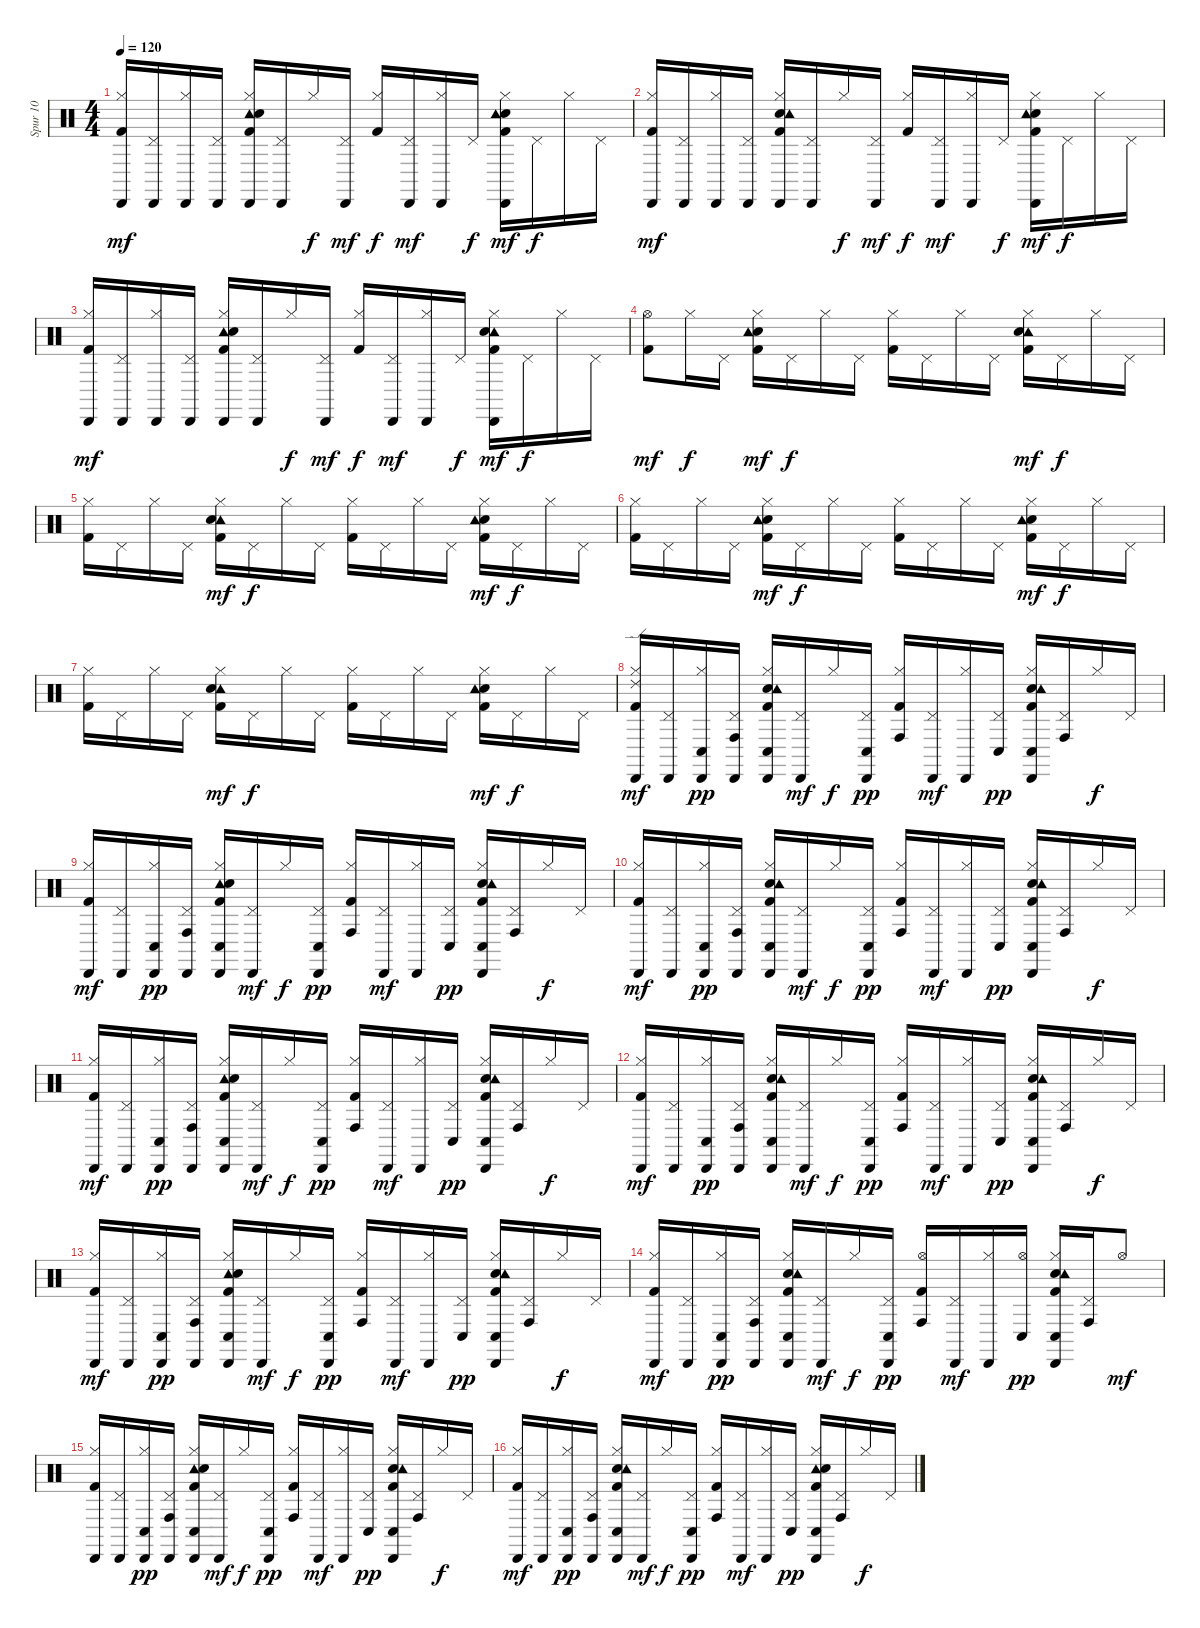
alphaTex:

\track ("Spur 10" "Spur 10") {instrument percussion}
\staff {score}
\articulation defaults
\ts (4 4)
\tempo 120
\clef neutral
\ks c
("Kick (hit) 2" "Hi-Hat (closed)" "Cabasa (hit)").16{dy mf} ("Pedal Hi-Hat (hit)" "Cabasa (hit)").16 ("Hi-Hat (closed)" "Cabasa (hit)").16 ("Pedal Hi-Hat (hit)" "Cabasa (hit)").16 ("Kick (hit) 2" "Tambourine (hit)" "Snare (hit) 2" "Hi-Hat (closed)" "Cabasa (hit)").16 ("Pedal Hi-Hat (hit)" "Cabasa (hit)").16 "Hi-Hat (closed)".16{dy f} ("Pedal Hi-Hat (hit)" "Cabasa (hit)").16{dy mf} ("Kick (hit) 2" "Hi-Hat (closed)").16{dy f} ("Pedal Hi-Hat (hit)" "Cabasa (hit)").16{dy mf} ("Hi-Hat (closed)" "Cabasa (hit)").16 "Pedal Hi-Hat (hit)".16{dy f} ("Snare (hit) 2" "Kick (hit) 2" "Tambourine (hit)" "Hi-Hat (closed)" "Cabasa (hit)").16{dy mf} "Pedal Hi-Hat (hit)".16{dy f} "Hi-Hat (closed)".16 "Pedal Hi-Hat (hit)".16 |
("Kick (hit) 2" "Hi-Hat (closed)" "Cabasa (hit)").16{dy mf} ("Pedal Hi-Hat (hit)" "Cabasa (hit)").16 ("Hi-Hat (closed)" "Cabasa (hit)").16 ("Pedal Hi-Hat (hit)" "Cabasa (hit)").16 ("Snare (hit) 2" "Kick (hit) 2" "Tambourine (hit)" "Hi-Hat (closed)" "Cabasa (hit)").16 ("Pedal Hi-Hat (hit)" "Cabasa (hit)").16 "Hi-Hat (closed)".16{dy f} ("Pedal Hi-Hat (hit)" "Cabasa (hit)").16{dy mf} ("Kick (hit) 2" "Hi-Hat (closed)").16{dy f} ("Pedal Hi-Hat (hit)" "Cabasa (hit)").16{dy mf} ("Hi-Hat (closed)" "Cabasa (hit)").16 "Pedal Hi-Hat (hit)".16{dy f} ("Kick (hit) 2" "Snare (hit) 2" "Tambourine (hit)" "Hi-Hat (closed)" "Cabasa (hit)").16{dy mf} "Pedal Hi-Hat (hit)".16{dy f} "Hi-Hat (closed)".16 "Pedal Hi-Hat (hit)".16 |
("Kick (hit) 2" "Hi-Hat (closed)" "Cabasa (hit)").16{dy mf} ("Pedal Hi-Hat (hit)" "Cabasa (hit)").16 ("Hi-Hat (closed)" "Cabasa (hit)").16 ("Pedal Hi-Hat (hit)" "Cabasa (hit)").16 ("Tambourine (hit)" "Snare (hit) 2" "Kick (hit) 2" "Hi-Hat (closed)" "Cabasa (hit)").16 ("Pedal Hi-Hat (hit)" "Cabasa (hit)").16 "Hi-Hat (closed)".16{dy f} ("Pedal Hi-Hat (hit)" "Cabasa (hit)").16{dy mf} ("Kick (hit) 2" "Hi-Hat (closed)").16{dy f} ("Pedal Hi-Hat (hit)" "Cabasa (hit)").16{dy mf} ("Hi-Hat (closed)" "Cabasa (hit)").16 "Pedal Hi-Hat (hit)".16{dy f} ("Kick (hit) 2" "Tambourine (hit)" "Snare (hit) 2" "Hi-Hat (closed)" "Cabasa (hit)").16{dy mf} "Pedal Hi-Hat (hit)".16{dy f} "Hi-Hat (closed)".16 "Pedal Hi-Hat (hit)".16 |
("Kick (hit) 2" "Hi-Hat (open)").8{dy mf} "Hi-Hat (closed)".16{dy f} "Pedal Hi-Hat (hit)".16 ("Kick (hit) 2" "Snare (hit) 2" "Tambourine (hit)" "Hi-Hat (closed)").16{dy mf} "Pedal Hi-Hat (hit)".16{dy f} "Hi-Hat (closed)".16 "Pedal Hi-Hat (hit)".16 ("Kick (hit) 2" "Hi-Hat (closed)").16 "Pedal Hi-Hat (hit)".16 "Hi-Hat (closed)".16 "Pedal Hi-Hat (hit)".16 ("Kick (hit) 2" "Tambourine (hit)" "Snare (hit) 2" "Hi-Hat (closed)").16{dy mf} "Pedal Hi-Hat (hit)".16{dy f} "Hi-Hat (closed)".16 "Pedal Hi-Hat (hit)".16 |
("Kick (hit) 2" "Hi-Hat (closed)").16 "Pedal Hi-Hat (hit)".16 "Hi-Hat (closed)".16 "Pedal Hi-Hat (hit)".16 ("Tambourine (hit)" "Snare (hit) 2" "Kick (hit) 2" "Hi-Hat (closed)").16{dy mf} "Pedal Hi-Hat (hit)".16{dy f} "Hi-Hat (closed)".16 "Pedal Hi-Hat (hit)".16 ("Kick (hit) 2" "Hi-Hat (closed)").16 "Pedal Hi-Hat (hit)".16 "Hi-Hat (closed)".16 "Pedal Hi-Hat (hit)".16 ("Snare (hit) 2" "Tambourine (hit)" "Kick (hit) 2" "Hi-Hat (closed)").16{dy mf} "Pedal Hi-Hat (hit)".16{dy f} "Hi-Hat (closed)".16 "Pedal Hi-Hat (hit)".16 |
("Kick (hit) 2" "Hi-Hat (closed)").16 "Pedal Hi-Hat (hit)".16 "Hi-Hat (closed)".16 "Pedal Hi-Hat (hit)".16 ("Snare (hit) 2" "Kick (hit) 2" "Tambourine (hit)" "Hi-Hat (closed)").16{dy mf} "Pedal Hi-Hat (hit)".16{dy f} "Hi-Hat (closed)".16 "Pedal Hi-Hat (hit)".16 ("Kick (hit) 2" "Hi-Hat (closed)").16 "Pedal Hi-Hat (hit)".16 "Hi-Hat (closed)".16 "Pedal Hi-Hat (hit)".16 ("Kick (hit) 2" "Snare (hit) 2" "Tambourine (hit)" "Hi-Hat (closed)").16{dy mf} "Pedal Hi-Hat (hit)".16{dy f} "Hi-Hat (closed)".16 "Pedal Hi-Hat (hit)".16 |
("Kick (hit) 2" "Hi-Hat (closed)").16 "Pedal Hi-Hat (hit)".16 "Hi-Hat (closed)".16 "Pedal Hi-Hat (hit)".16 ("Tambourine (hit)" "Snare (hit) 2" "Kick (hit) 2" "Hi-Hat (closed)").16{dy mf} "Pedal Hi-Hat (hit)".16{dy f} "Hi-Hat (closed)".16 "Pedal Hi-Hat (hit)".16 ("Kick (hit) 2" "Hi-Hat (closed)").16 "Pedal Hi-Hat (hit)".16 "Hi-Hat (closed)".16 "Pedal Hi-Hat (hit)".16 ("Kick (hit) 2" "Snare (hit) 2" "Tambourine (hit)" "Hi-Hat (closed)").16{dy mf} "Pedal Hi-Hat (hit)".16{dy f} "Hi-Hat (closed)".16 "Pedal Hi-Hat (hit)".16 |
("Kick (hit) 2" "Hi-Hat (closed)" "Ride (edge) 2" "Cabasa (hit)").16{dy mf} ("Pedal Hi-Hat (hit)" "Cabasa (hit)").16 ("Hi-Hat (closed)" "Cabasa (hit)" "Conga low (hit)").16{dy pp} ("Pedal Hi-Hat (hit)" "Cabasa (hit)" "Conga high (hit)").16 ("Snare (hit) 2" "Kick (hit) 2" "Tambourine (hit)" "Hi-Hat (closed)" "Cabasa (hit)" "Conga low (hit)").16 ("Pedal Hi-Hat (hit)" "Cabasa (hit)").16{dy mf} "Hi-Hat (closed)".16{dy f} ("Pedal Hi-Hat (hit)" "Cabasa (hit)" "Conga low (hit)").16{dy pp} ("Kick (hit) 2" "Hi-Hat (closed)" "Conga high (hit)").16 ("Pedal Hi-Hat (hit)" "Cabasa (hit)").16{dy mf} ("Hi-Hat (closed)" "Cabasa (hit)").16 ("Pedal Hi-Hat (hit)" "Conga low (hit)").16{dy pp} ("Snare (hit) 2" "Tambourine (hit)" "Kick (hit) 2" "Hi-Hat (closed)" "Cabasa (hit)" "Conga low (hit)").16 ("Pedal Hi-Hat (hit)" "Conga high (hit)").16 "Hi-Hat (closed)".16{dy f} "Pedal Hi-Hat (hit)".16 |
("Kick (hit) 2" "Hi-Hat (closed)" "Cabasa (hit)").16{dy mf} ("Pedal Hi-Hat (hit)" "Cabasa (hit)").16 ("Hi-Hat (closed)" "Cabasa (hit)" "Conga low (hit)").16{dy pp} ("Pedal Hi-Hat (hit)" "Cabasa (hit)" "Conga high (hit)").16 ("Tambourine (hit)" "Snare (hit) 2" "Kick (hit) 2" "Hi-Hat (closed)" "Cabasa (hit)" "Conga low (hit)").16 ("Pedal Hi-Hat (hit)" "Cabasa (hit)").16{dy mf} "Hi-Hat (closed)".16{dy f} ("Pedal Hi-Hat (hit)" "Cabasa (hit)" "Conga low (hit)").16{dy pp} ("Kick (hit) 2" "Hi-Hat (closed)" "Conga high (hit)").16 ("Pedal Hi-Hat (hit)" "Cabasa (hit)").16{dy mf} ("Hi-Hat (closed)" "Cabasa (hit)").16 ("Pedal Hi-Hat (hit)" "Conga low (hit)").16{dy pp} ("Snare (hit) 2" "Tambourine (hit)" "Kick (hit) 2" "Hi-Hat (closed)" "Cabasa (hit)" "Conga low (hit)").16 ("Pedal Hi-Hat (hit)" "Conga high (hit)").16 "Hi-Hat (closed)".16{dy f} "Pedal Hi-Hat (hit)".16 |
("Kick (hit) 2" "Hi-Hat (closed)" "Cabasa (hit)").16{dy mf} ("Pedal Hi-Hat (hit)" "Cabasa (hit)").16 ("Hi-Hat (closed)" "Cabasa (hit)" "Conga low (hit)").16{dy pp} ("Pedal Hi-Hat (hit)" "Cabasa (hit)" "Conga high (hit)").16 ("Snare (hit) 2" "Kick (hit) 2" "Tambourine (hit)" "Hi-Hat (closed)" "Cabasa (hit)" "Conga low (hit)").16 ("Pedal Hi-Hat (hit)" "Cabasa (hit)").16{dy mf} "Hi-Hat (closed)".16{dy f} ("Pedal Hi-Hat (hit)" "Cabasa (hit)" "Conga low (hit)").16{dy pp} ("Kick (hit) 2" "Hi-Hat (closed)" "Conga high (hit)").16 ("Pedal Hi-Hat (hit)" "Cabasa (hit)").16{dy mf} ("Hi-Hat (closed)" "Cabasa (hit)").16 ("Pedal Hi-Hat (hit)" "Conga low (hit)").16{dy pp} ("Kick (hit) 2" "Snare (hit) 2" "Tambourine (hit)" "Hi-Hat (closed)" "Cabasa (hit)" "Conga low (hit)").16 ("Pedal Hi-Hat (hit)" "Conga high (hit)").16 "Hi-Hat (closed)".16{dy f} "Pedal Hi-Hat (hit)".16 |
("Kick (hit) 2" "Hi-Hat (closed)" "Cabasa (hit)").16{dy mf} ("Pedal Hi-Hat (hit)" "Cabasa (hit)").16 ("Hi-Hat (closed)" "Cabasa (hit)" "Conga low (hit)").16{dy pp} ("Pedal Hi-Hat (hit)" "Cabasa (hit)" "Conga high (hit)").16 ("Tambourine (hit)" "Kick (hit) 2" "Snare (hit) 2" "Hi-Hat (closed)" "Cabasa (hit)" "Conga low (hit)").16 ("Pedal Hi-Hat (hit)" "Cabasa (hit)").16{dy mf} "Hi-Hat (closed)".16{dy f} ("Pedal Hi-Hat (hit)" "Cabasa (hit)" "Conga low (hit)").16{dy pp} ("Kick (hit) 2" "Hi-Hat (closed)" "Conga high (hit)").16 ("Pedal Hi-Hat (hit)" "Cabasa (hit)").16{dy mf} ("Hi-Hat (closed)" "Cabasa (hit)").16 ("Pedal Hi-Hat (hit)" "Conga low (hit)").16{dy pp} ("Snare (hit) 2" "Tambourine (hit)" "Kick (hit) 2" "Hi-Hat (closed)" "Cabasa (hit)" "Conga low (hit)").16 ("Pedal Hi-Hat (hit)" "Conga high (hit)").16 "Hi-Hat (closed)".16{dy f} "Pedal Hi-Hat (hit)".16 |
("Kick (hit) 2" "Hi-Hat (closed)" "Cabasa (hit)").16{dy mf} ("Pedal Hi-Hat (hit)" "Cabasa (hit)").16 ("Hi-Hat (closed)" "Cabasa (hit)" "Conga low (hit)").16{dy pp} ("Pedal Hi-Hat (hit)" "Cabasa (hit)" "Conga high (hit)").16 ("Snare (hit) 2" "Kick (hit) 2" "Tambourine (hit)" "Hi-Hat (closed)" "Cabasa (hit)" "Conga low (hit)").16 ("Pedal Hi-Hat (hit)" "Cabasa (hit)").16{dy mf} "Hi-Hat (closed)".16{dy f} ("Pedal Hi-Hat (hit)" "Cabasa (hit)" "Conga low (hit)").16{dy pp} ("Kick (hit) 2" "Hi-Hat (closed)" "Conga high (hit)").16 ("Pedal Hi-Hat (hit)" "Cabasa (hit)").16{dy mf} ("Hi-Hat (closed)" "Cabasa (hit)").16 ("Pedal Hi-Hat (hit)" "Conga low (hit)").16{dy pp} ("Snare (hit) 2" "Tambourine (hit)" "Kick (hit) 2" "Hi-Hat (closed)" "Cabasa (hit)" "Conga low (hit)").16 ("Pedal Hi-Hat (hit)" "Conga high (hit)").16 "Hi-Hat (closed)".16{dy f} "Pedal Hi-Hat (hit)".16 |
("Kick (hit) 2" "Hi-Hat (closed)" "Cabasa (hit)").16{dy mf} ("Pedal Hi-Hat (hit)" "Cabasa (hit)").16 ("Hi-Hat (closed)" "Cabasa (hit)" "Conga low (hit)").16{dy pp} ("Pedal Hi-Hat (hit)" "Cabasa (hit)" "Conga high (hit)").16 ("Tambourine (hit)" "Snare (hit) 2" "Kick (hit) 2" "Hi-Hat (closed)" "Cabasa (hit)" "Conga low (hit)").16 ("Pedal Hi-Hat (hit)" "Cabasa (hit)").16{dy mf} "Hi-Hat (closed)".16{dy f} ("Pedal Hi-Hat (hit)" "Cabasa (hit)" "Conga low (hit)").16{dy pp} ("Kick (hit) 2" "Hi-Hat (closed)" "Conga high (hit)").16 ("Pedal Hi-Hat (hit)" "Cabasa (hit)").16{dy mf} ("Hi-Hat (closed)" "Cabasa (hit)").16 ("Pedal Hi-Hat (hit)" "Conga low (hit)").16{dy pp} ("Snare (hit) 2" "Kick (hit) 2" "Tambourine (hit)" "Hi-Hat (closed)" "Cabasa (hit)" "Conga low (hit)").16 ("Pedal Hi-Hat (hit)" "Conga high (hit)").16 "Hi-Hat (closed)".16{dy f} "Pedal Hi-Hat (hit)".16 |
("Kick (hit) 2" "Hi-Hat (closed)" "Cabasa (hit)").16{dy mf} ("Pedal Hi-Hat (hit)" "Cabasa (hit)").16 ("Hi-Hat (closed)" "Cabasa (hit)" "Conga low (hit)").16{dy pp} ("Pedal Hi-Hat (hit)" "Cabasa (hit)" "Conga high (hit)").16 ("Kick (hit) 2" "Snare (hit) 2" "Tambourine (hit)" "Hi-Hat (closed)" "Cabasa (hit)" "Conga low (hit)").16 ("Pedal Hi-Hat (hit)" "Cabasa (hit)").16{dy mf} "Hi-Hat (closed)".16{dy f} ("Pedal Hi-Hat (hit)" "Cabasa (hit)" "Conga low (hit)").16{dy pp} ("Kick (hit) 2" "Hi-Hat (open)" "Conga high (hit)").16 ("Pedal Hi-Hat (hit)" "Cabasa (hit)").16{dy mf} ("Hi-Hat (closed)" "Cabasa (hit)").16 ("Hi-Hat (open)" "Conga low (hit)").16{dy pp} ("Snare (hit) 2" "Kick (hit) 2" "Tambourine (hit)" "Hi-Hat (closed)" "Cabasa (hit)" "Conga low (hit)").16 ("Pedal Hi-Hat (hit)" "Conga high (hit)").16 "Hi-Hat (open)".8{dy mf} |
("Kick (hit) 2" "Hi-Hat (closed)" "Cabasa (hit)").16 ("Pedal Hi-Hat (hit)" "Cabasa (hit)").16 ("Hi-Hat (closed)" "Cabasa (hit)" "Conga low (hit)").16{dy pp} ("Pedal Hi-Hat (hit)" "Cabasa (hit)" "Conga high (hit)").16 ("Tambourine (hit)" "Kick (hit) 2" "Snare (hit) 2" "Hi-Hat (closed)" "Cabasa (hit)" "Conga low (hit)").16 ("Pedal Hi-Hat (hit)" "Cabasa (hit)").16{dy mf} "Hi-Hat (closed)".16{dy f} ("Pedal Hi-Hat (hit)" "Cabasa (hit)" "Conga low (hit)").16{dy pp} ("Kick (hit) 2" "Hi-Hat (closed)" "Conga high (hit)").16 ("Pedal Hi-Hat (hit)" "Cabasa (hit)").16{dy mf} ("Hi-Hat (closed)" "Cabasa (hit)").16 ("Pedal Hi-Hat (hit)" "Conga low (hit)").16{dy pp} ("Snare (hit) 2" "Kick (hit) 2" "Tambourine (hit)" "Hi-Hat (closed)" "Cabasa (hit)" "Conga low (hit)").16 ("Pedal Hi-Hat (hit)" "Conga high (hit)").16 "Hi-Hat (closed)".16{dy f} "Pedal Hi-Hat (hit)".16 |
("Kick (hit) 2" "Hi-Hat (closed)" "Cabasa (hit)").16{dy mf} ("Pedal Hi-Hat (hit)" "Cabasa (hit)").16 ("Hi-Hat (closed)" "Cabasa (hit)" "Conga low (hit)").16{dy pp} ("Pedal Hi-Hat (hit)" "Cabasa (hit)" "Conga high (hit)").16 ("Snare (hit) 2" "Kick (hit) 2" "Tambourine (hit)" "Hi-Hat (closed)" "Cabasa (hit)" "Conga low (hit)").16 ("Pedal Hi-Hat (hit)" "Cabasa (hit)").16{dy mf} "Hi-Hat (closed)".16{dy f} ("Pedal Hi-Hat (hit)" "Cabasa (hit)" "Conga low (hit)").16{dy pp} ("Kick (hit) 2" "Hi-Hat (closed)" "Conga high (hit)").16 ("Pedal Hi-Hat (hit)" "Cabasa (hit)").16{dy mf} ("Hi-Hat (closed)" "Cabasa (hit)").16 ("Pedal Hi-Hat (hit)" "Conga low (hit)").16{dy pp} ("Tambourine (hit)" "Snare (hit) 2" "Kick (hit) 2" "Hi-Hat (closed)" "Cabasa (hit)" "Conga low (hit)").16 ("Pedal Hi-Hat (hit)" "Conga high (hit)").16 "Hi-Hat (closed)".16{dy f} "Pedal Hi-Hat (hit)".16
